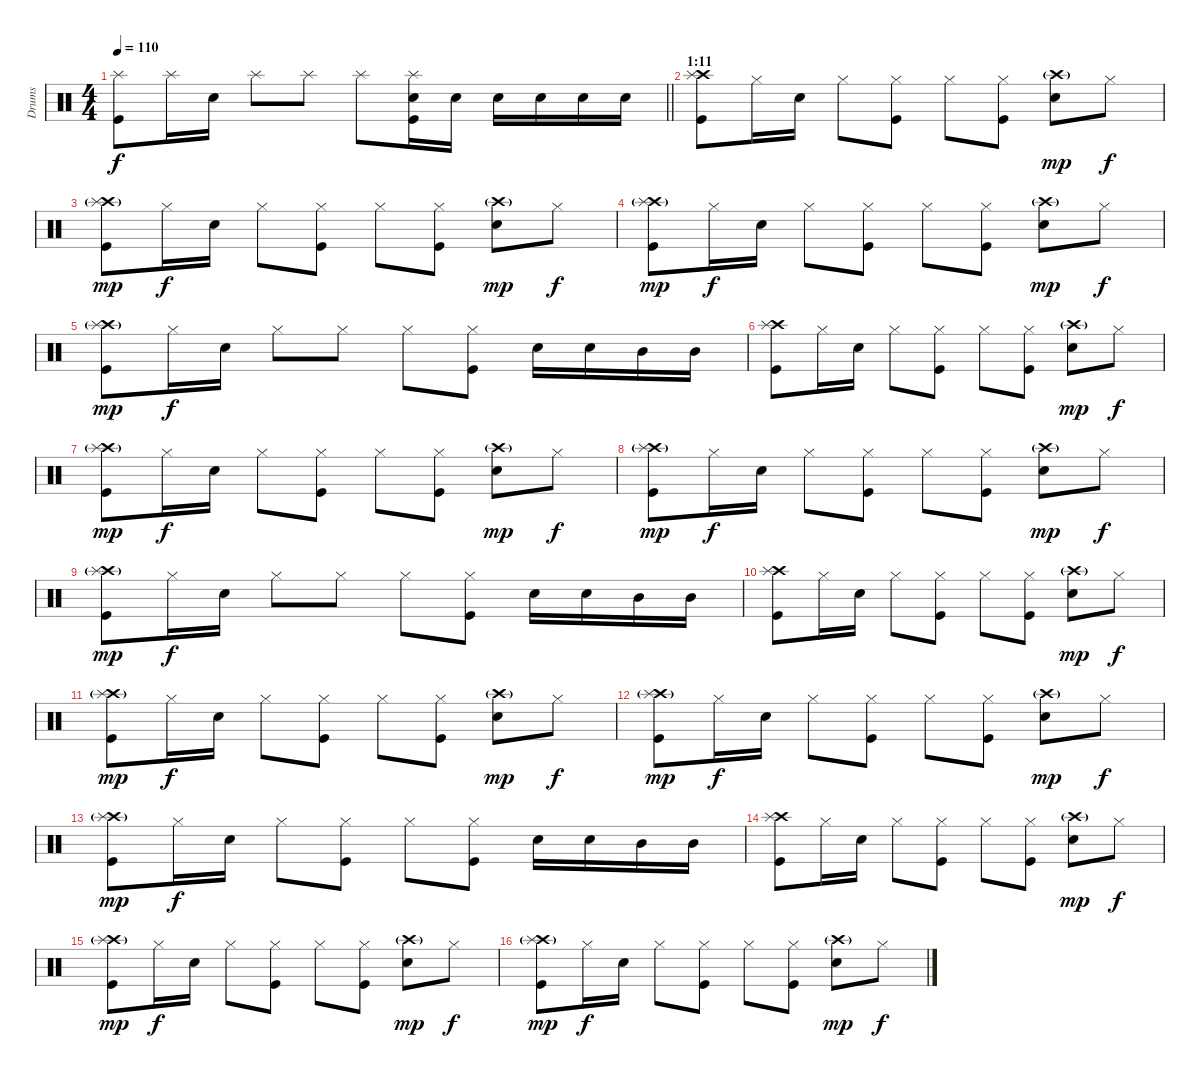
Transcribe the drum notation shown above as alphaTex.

\track ("Drums" "Drums") {instrument percussion}
\staff {score}
\articulation defaults
\ts (4 4)
\tempo 110
\clef neutral
\barLineRight lightlight
\ks c
("Splash (hit)" "Kick (hit)").8{dy f} "Splash (hit)".16 "Snare (hit) 2".16 "Splash (hit)".8 "Splash (hit)".8 "Splash (hit)".8 ("Splash (hit)" "Snare (hit) 2" "Kick (hit)").16 "Snare (hit) 2".16 "Snare (hit) 2".16 "Snare (hit) 2".16 "Snare (hit) 2".16 "Snare (hit) 2".16 |
\section ("" "1:11")
("Crash high (hit)" "Splash (hit)" "Kick (hit)").8 "Hi-Hat (closed)".16 "Snare (hit) 2".16 "Hi-Hat (closed)".8 ("Hi-Hat (closed)" "Kick (hit)").8 "Hi-Hat (closed)".8 ("Hi-Hat (closed)" "Kick (hit)").8 ("Crash high (hit)"{g} "Snare (hit) 2").8{dy mp} "Hi-Hat (closed)".8{dy f} |
("Crash high (hit)"{g} "Splash (hit)" "Kick (hit)").8{dy mp} "Hi-Hat (closed)".16{dy f} "Snare (hit) 2".16 "Hi-Hat (closed)".8 ("Hi-Hat (closed)" "Kick (hit)").8 "Hi-Hat (closed)".8 ("Hi-Hat (closed)" "Kick (hit)").8 ("Crash high (hit)"{g} "Snare (hit) 2").8{dy mp} "Hi-Hat (closed)".8{dy f} |
("Crash high (hit)"{g} "Splash (hit)" "Kick (hit)").8{dy mp} "Hi-Hat (closed)".16{dy f} "Snare (hit) 2".16 "Hi-Hat (closed)".8 ("Hi-Hat (closed)" "Kick (hit)").8 "Hi-Hat (closed)".8 ("Hi-Hat (closed)" "Kick (hit)").8 ("Crash high (hit)"{g} "Snare (hit) 2").8{dy mp} "Hi-Hat (closed)".8{dy f} |
("Crash high (hit)"{g} "Splash (hit)" "Kick (hit)").8{dy mp} "Hi-Hat (closed)".16{dy f} "Snare (hit) 2".16 "Hi-Hat (closed)".8 "Hi-Hat (closed)".8 "Hi-Hat (closed)".8 ("Hi-Hat (closed)" "Kick (hit)").8 "Snare (hit) 2".16 "Snare (hit) 2".16 "Mid Tom (hit)".16 "Mid Tom (hit)".16 |
("Crash high (hit)" "Splash (hit)" "Kick (hit)").8 "Hi-Hat (closed)".16 "Snare (hit) 2".16 "Hi-Hat (closed)".8 ("Hi-Hat (closed)" "Kick (hit)").8 "Hi-Hat (closed)".8 ("Hi-Hat (closed)" "Kick (hit)").8 ("Crash high (hit)"{g} "Snare (hit) 2").8{dy mp} "Hi-Hat (closed)".8{dy f} |
("Crash high (hit)"{g} "Splash (hit)" "Kick (hit)").8{dy mp} "Hi-Hat (closed)".16{dy f} "Snare (hit) 2".16 "Hi-Hat (closed)".8 ("Hi-Hat (closed)" "Kick (hit)").8 "Hi-Hat (closed)".8 ("Hi-Hat (closed)" "Kick (hit)").8 ("Crash high (hit)"{g} "Snare (hit) 2").8{dy mp} "Hi-Hat (closed)".8{dy f} |
("Crash high (hit)"{g} "Splash (hit)" "Kick (hit)").8{dy mp} "Hi-Hat (closed)".16{dy f} "Snare (hit) 2".16 "Hi-Hat (closed)".8 ("Hi-Hat (closed)" "Kick (hit)").8 "Hi-Hat (closed)".8 ("Hi-Hat (closed)" "Kick (hit)").8 ("Crash high (hit)"{g} "Snare (hit) 2").8{dy mp} "Hi-Hat (closed)".8{dy f} |
("Crash high (hit)"{g} "Splash (hit)" "Kick (hit)").8{dy mp} "Hi-Hat (closed)".16{dy f} "Snare (hit) 2".16 "Hi-Hat (closed)".8 "Hi-Hat (closed)".8 "Hi-Hat (closed)".8 ("Hi-Hat (closed)" "Kick (hit)").8 "Snare (hit) 2".16 "Snare (hit) 2".16 "Mid Tom (hit)".16 "Mid Tom (hit)".16 |
("Crash high (hit)" "Splash (hit)" "Kick (hit)").8 "Hi-Hat (closed)".16 "Snare (hit) 2".16 "Hi-Hat (closed)".8 ("Hi-Hat (closed)" "Kick (hit)").8 "Hi-Hat (closed)".8 ("Hi-Hat (closed)" "Kick (hit)").8 ("Crash high (hit)"{g} "Snare (hit) 2").8{dy mp} "Hi-Hat (closed)".8{dy f} |
("Crash high (hit)"{g} "Splash (hit)" "Kick (hit)").8{dy mp} "Hi-Hat (closed)".16{dy f} "Snare (hit) 2".16 "Hi-Hat (closed)".8 ("Hi-Hat (closed)" "Kick (hit)").8 "Hi-Hat (closed)".8 ("Hi-Hat (closed)" "Kick (hit)").8 ("Crash high (hit)"{g} "Snare (hit) 2").8{dy mp} "Hi-Hat (closed)".8{dy f} |
("Crash high (hit)"{g} "Splash (hit)" "Kick (hit)").8{dy mp} "Hi-Hat (closed)".16{dy f} "Snare (hit) 2".16 "Hi-Hat (closed)".8 ("Hi-Hat (closed)" "Kick (hit)").8 "Hi-Hat (closed)".8 ("Hi-Hat (closed)" "Kick (hit)").8 ("Crash high (hit)"{g} "Snare (hit) 2").8{dy mp} "Hi-Hat (closed)".8{dy f} |
("Crash high (hit)"{g} "Splash (hit)" "Kick (hit)").8{dy mp} "Hi-Hat (closed)".16{dy f} "Snare (hit) 2".16 "Hi-Hat (closed)".8 ("Hi-Hat (closed)" "Kick (hit)").8 "Hi-Hat (closed)".8 ("Hi-Hat (closed)" "Kick (hit)").8 "Snare (hit) 2".16 "Snare (hit) 2".16 "Mid Tom (hit)".16 "Mid Tom (hit)".16 |
("Crash high (hit)" "Splash (hit)" "Kick (hit)").8 "Hi-Hat (closed)".16 "Snare (hit) 2".16 "Hi-Hat (closed)".8 ("Hi-Hat (closed)" "Kick (hit)").8 "Hi-Hat (closed)".8 ("Hi-Hat (closed)" "Kick (hit)").8 ("Crash high (hit)"{g} "Snare (hit) 2").8{dy mp} "Hi-Hat (closed)".8{dy f} |
("Crash high (hit)"{g} "Splash (hit)" "Kick (hit)").8{dy mp} "Hi-Hat (closed)".16{dy f} "Snare (hit) 2".16 "Hi-Hat (closed)".8 ("Hi-Hat (closed)" "Kick (hit)").8 "Hi-Hat (closed)".8 ("Hi-Hat (closed)" "Kick (hit)").8 ("Crash high (hit)"{g} "Snare (hit) 2").8{dy mp} "Hi-Hat (closed)".8{dy f} |
("Crash high (hit)"{g} "Splash (hit)" "Kick (hit)").8{dy mp} "Hi-Hat (closed)".16{dy f} "Snare (hit) 2".16 "Hi-Hat (closed)".8 ("Hi-Hat (closed)" "Kick (hit)").8 "Hi-Hat (closed)".8 ("Hi-Hat (closed)" "Kick (hit)").8 ("Crash high (hit)"{g} "Snare (hit) 2").8{dy mp} "Hi-Hat (closed)".8{dy f}
